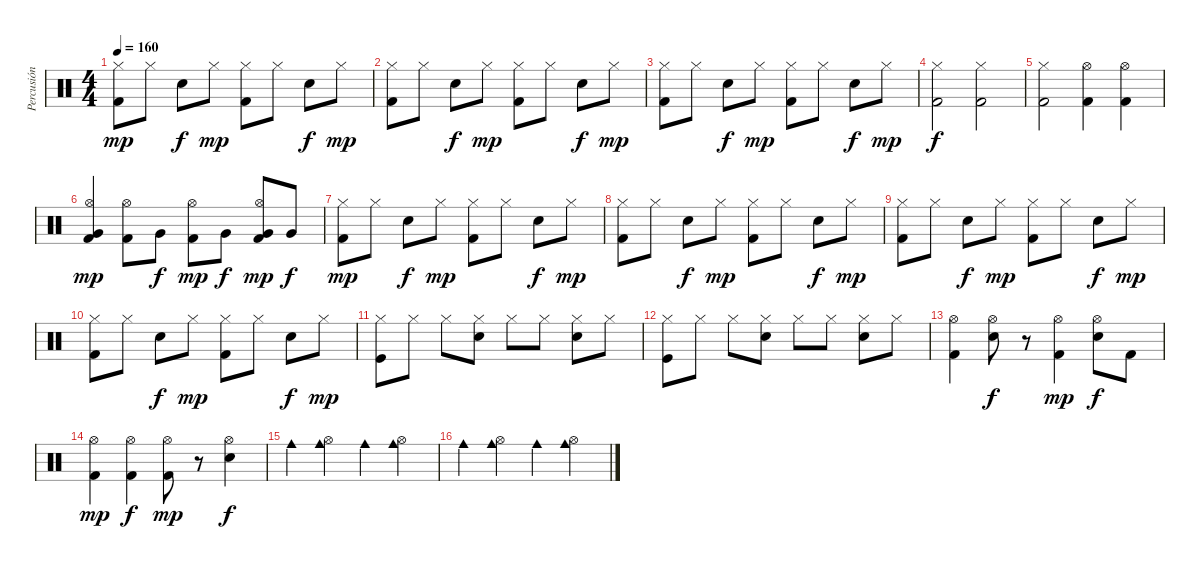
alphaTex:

\track ("Percusión" "Percusión") {instrument percussion}
\staff {score}
\articulation defaults
\ts (4 4)
\tempo 160
\clef neutral
\ks c
("Hi-Hat (closed)" "Kick (hit) 2").8{dy mp} "Hi-Hat (closed)".8 "Snare (hit) 2".8{dy f} "Hi-Hat (closed)".8{dy mp} ("Hi-Hat (closed)" "Kick (hit) 2").8 "Hi-Hat (closed)".8 "Snare (hit) 2".8{dy f} "Hi-Hat (closed)".8{dy mp} |
("Hi-Hat (closed)" "Kick (hit) 2").8 "Hi-Hat (closed)".8 "Snare (hit) 2".8{dy f} "Hi-Hat (closed)".8{dy mp} ("Hi-Hat (closed)" "Kick (hit) 2").8 "Hi-Hat (closed)".8 "Snare (hit) 2".8{dy f} "Hi-Hat (closed)".8{dy mp} |
("Hi-Hat (closed)" "Kick (hit) 2").8 "Hi-Hat (closed)".8 "Snare (hit) 2".8{dy f} "Hi-Hat (closed)".8{dy mp} ("Hi-Hat (closed)" "Kick (hit) 2").8 "Hi-Hat (closed)".8 "Snare (hit) 2".8{dy f} "Hi-Hat (closed)".8{dy mp} |
("Hi-Hat (closed)" "Kick (hit) 2").2{dy f} ("Hi-Hat (closed)" "Kick (hit) 2").2 |
("Hi-Hat (closed)" "Kick (hit) 2").2 ("Hi-Hat (open)" "Kick (hit) 2").4 ("Hi-Hat (open)" "Kick (hit) 2").4 |
("Hi-Hat (open)" "Very Low Tom (hit)" "Kick (hit) 2").4{dy mp} ("Hi-Hat (open)" "Kick (hit) 2").8 "Very Low Tom (hit)".8{dy f} ("Hi-Hat (open)" "Kick (hit) 2").8{dy mp} "Very Low Tom (hit)".8{dy f} ("Hi-Hat (open)" "Very Low Tom (hit)" "Kick (hit) 2").8{dy mp} "Very Low Tom (hit)".8{dy f} |
("Hi-Hat (closed)" "Kick (hit) 2").8{dy mp} "Hi-Hat (closed)".8 "Snare (hit) 2".8{dy f} "Hi-Hat (closed)".8{dy mp} ("Hi-Hat (closed)" "Kick (hit) 2").8 "Hi-Hat (closed)".8 "Snare (hit) 2".8{dy f} "Hi-Hat (closed)".8{dy mp} |
("Hi-Hat (closed)" "Kick (hit) 2").8 "Hi-Hat (closed)".8 "Snare (hit) 2".8{dy f} "Hi-Hat (closed)".8{dy mp} ("Hi-Hat (closed)" "Kick (hit) 2").8 "Hi-Hat (closed)".8 "Snare (hit) 2".8{dy f} "Hi-Hat (closed)".8{dy mp} |
("Hi-Hat (closed)" "Kick (hit) 2").8 "Hi-Hat (closed)".8 "Snare (hit) 2".8{dy f} "Hi-Hat (closed)".8{dy mp} ("Hi-Hat (closed)" "Kick (hit) 2").8 "Hi-Hat (closed)".8 "Snare (hit) 2".8{dy f} "Hi-Hat (closed)".8{dy mp} |
("Hi-Hat (closed)" "Kick (hit) 2").8 "Hi-Hat (closed)".8 "Snare (hit) 2".8{dy f} "Hi-Hat (closed)".8{dy mp} ("Hi-Hat (closed)" "Kick (hit) 2").8 "Hi-Hat (closed)".8 "Snare (hit) 2".8{dy f} "Hi-Hat (closed)".8{dy mp} |
("Hi-Hat (closed)" "Kick (hit)").8 "Hi-Hat (closed)".8 "Hi-Hat (closed)".8 ("Hi-Hat (closed)" "Snare (hit) 2").8 "Hi-Hat (closed)".8 "Hi-Hat (closed)".8 ("Hi-Hat (closed)" "Snare (hit) 2").8 "Hi-Hat (closed)".8 |
("Hi-Hat (closed)" "Kick (hit)").8 "Hi-Hat (closed)".8 "Hi-Hat (closed)".8 ("Hi-Hat (closed)" "Snare (hit) 2").8 "Hi-Hat (closed)".8 "Hi-Hat (closed)".8 ("Hi-Hat (closed)" "Snare (hit) 2").8 "Hi-Hat (closed)".8 |
("Hi-Hat (open)" "Kick (hit) 2").4 ("Hi-Hat (open)" "Snare (hit) 2").8{dy f} r.8 ("Hi-Hat (open)" "Kick (hit) 2").4{dy mp} ("Hi-Hat (open)" "Snare (hit) 2").8{dy f} "Kick (hit) 2".8 |
("Hi-Hat (open)" "Kick (hit) 2").4{dy mp} ("Hi-Hat (open)" "Kick (hit) 2").4{dy f} ("Hi-Hat (open)" "Kick (hit) 2").8{dy mp} r.8 ("Hi-Hat (open)" "Snare (hit) 2").4{dy f} |
"Cowbell medium (hit)".4 ("Cowbell medium (hit)" "Hi-Hat (open)").4 "Cowbell medium (hit)".4 ("Cowbell medium (hit)" "Hi-Hat (open)").4 |
"Cowbell medium (hit)".4 ("Cowbell medium (hit)" "Hi-Hat (open)").4 "Cowbell medium (hit)".4 ("Cowbell medium (hit)" "Hi-Hat (open)").4
